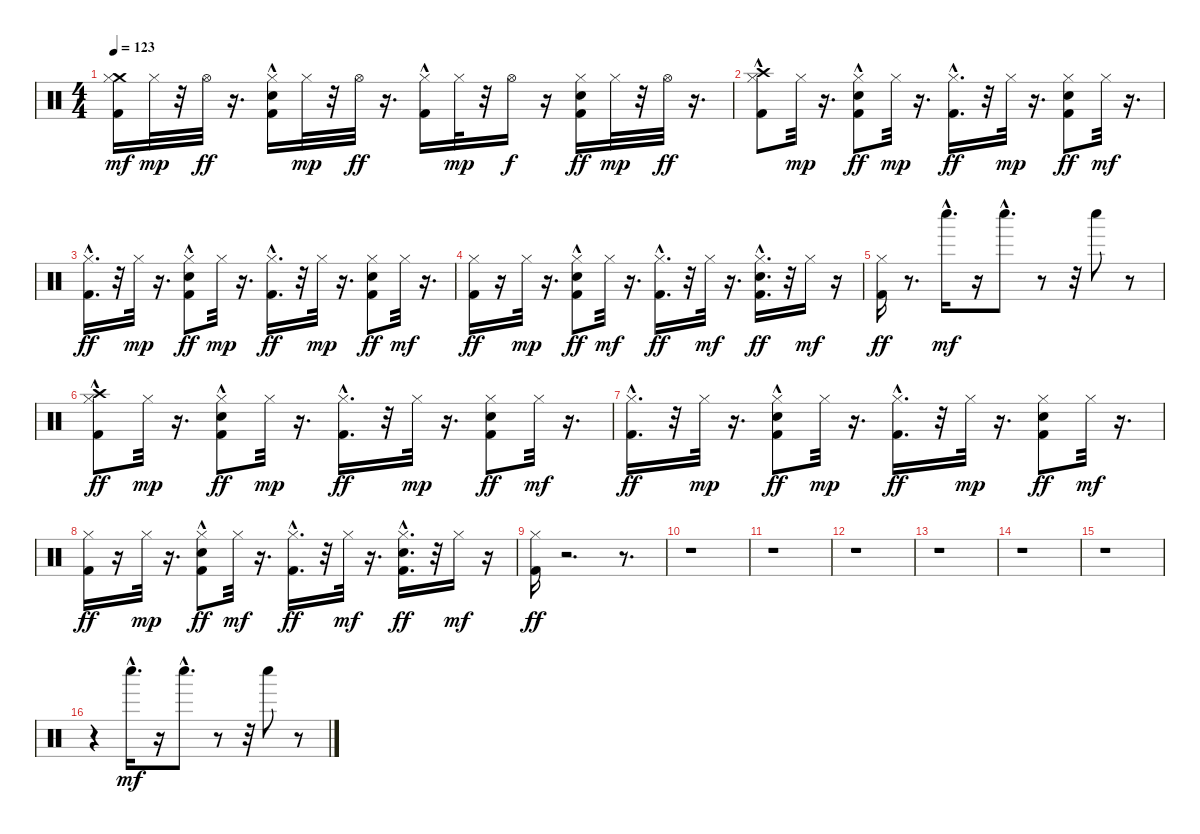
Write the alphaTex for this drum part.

\track "" {instrument percussion}
\staff {score}
\articulation defaults
\ts (4 4)
\tempo 123
\clef neutral
\ks c
("Kick (hit) 2" "Crash medium (hit)" "Hi-Hat (closed)").16{dy mf} "Hi-Hat (closed)".32{dy mp} r.32 "Hi-Hat (open)".32{dy ff} r.16{d} ("Kick (hit) 2"{hac} "Hi-Hat (closed)" "Snare (hit) 2"{hac}).16 "Hi-Hat (closed)".32{dy mp} r.32 "Hi-Hat (open)".32{dy ff} r.16{d} ("Kick (hit) 2"{hac} "Hi-Hat (closed)").16 "Hi-Hat (closed)".32{dy mp} r.32 "Hi-Hat (open)".16{dy f} r.16 ("Snare (hit) 2" "Kick (hit) 2" "Hi-Hat (closed)").16{dy ff} "Hi-Hat (closed)".32{dy mp} r.32 "Hi-Hat (open)".32{dy ff} r.16{d} |
("Kick (hit) 2"{hac} "Crash high (hit)" "Hi-Hat (closed)").8 "Hi-Hat (closed)".32{dy mp} r.16{d} ("Kick (hit) 2"{hac} "Snare (hit) 2" "Hi-Hat (closed)").8{dy ff} "Hi-Hat (closed)".32{dy mp} r.16{d} ("Kick (hit) 2"{hac} "Hi-Hat (closed)").16{d dy ff} r.32 "Hi-Hat (closed)".32{dy mp} r.16{d} ("Kick (hit) 2" "Snare (hit) 2" "Hi-Hat (closed)").8{dy ff} "Hi-Hat (closed)".32{dy mf} r.16{d} |
("Kick (hit) 2"{hac} "Hi-Hat (closed)").16{d dy ff} r.32 "Hi-Hat (closed)".32{dy mp} r.16{d} ("Kick (hit) 2"{hac} "Snare (hit) 2" "Hi-Hat (closed)").8{dy ff} "Hi-Hat (closed)".32{dy mp} r.16{d} ("Kick (hit) 2"{hac} "Hi-Hat (closed)").16{d dy ff} r.32 "Hi-Hat (closed)".32{dy mp} r.16{d} ("Kick (hit) 2" "Snare (hit) 2" "Hi-Hat (closed)").8{dy ff} "Hi-Hat (closed)".32{dy mf} r.16{d} |
("Kick (hit) 2" "Hi-Hat (closed)").16{dy ff} r.16 "Hi-Hat (closed)".32{dy mp} r.16{d} ("Kick (hit) 2"{hac} "Snare (hit) 2" "Hi-Hat (closed)").8{dy ff} "Hi-Hat (closed)".32{dy mf} r.16{d} ("Kick (hit) 2"{hac} "Hi-Hat (closed)").16{d dy ff} r.32 "Hi-Hat (closed)".32{dy mf} r.16{d} ("Kick (hit) 2" "Snare (hit) 2"{hac} "Hi-Hat (closed)").16{d dy ff} r.32 "Hi-Hat (closed)".16{dy mf} r.16 |
("Kick (hit) 2" "Hi-Hat (closed)").16{dy ff} r.8{d} "Whistle low (hit)"{hac}.16{d dy mf} r.16 "Whistle low (hit)"{hac}.8{d} r.8 r.32 "Whistle low (hit)".8 r.8 |
("Kick (hit) 2"{hac} "Crash high (hit)" "Hi-Hat (closed)").8{dy ff} "Hi-Hat (closed)".32{dy mp} r.16{d} ("Kick (hit) 2"{hac} "Snare (hit) 2" "Hi-Hat (closed)").8{dy ff} "Hi-Hat (closed)".32{dy mp} r.16{d} ("Kick (hit) 2"{hac} "Hi-Hat (closed)").16{d dy ff} r.32 "Hi-Hat (closed)".32{dy mp} r.16{d} ("Kick (hit) 2" "Snare (hit) 2" "Hi-Hat (closed)").8{dy ff} "Hi-Hat (closed)".32{dy mf} r.16{d} |
("Kick (hit) 2"{hac} "Hi-Hat (closed)").16{d dy ff} r.32 "Hi-Hat (closed)".32{dy mp} r.16{d} ("Kick (hit) 2"{hac} "Snare (hit) 2" "Hi-Hat (closed)").8{dy ff} "Hi-Hat (closed)".32{dy mp} r.16{d} ("Kick (hit) 2"{hac} "Hi-Hat (closed)").16{d dy ff} r.32 "Hi-Hat (closed)".32{dy mp} r.16{d} ("Kick (hit) 2" "Snare (hit) 2" "Hi-Hat (closed)").8{dy ff} "Hi-Hat (closed)".32{dy mf} r.16{d} |
("Kick (hit) 2" "Hi-Hat (closed)").16{dy ff} r.16 "Hi-Hat (closed)".32{dy mp} r.16{d} ("Kick (hit) 2"{hac} "Snare (hit) 2" "Hi-Hat (closed)").8{dy ff} "Hi-Hat (closed)".32{dy mf} r.16{d} ("Kick (hit) 2"{hac} "Hi-Hat (closed)").16{d dy ff} r.32 "Hi-Hat (closed)".32{dy mf} r.16{d} ("Kick (hit) 2" "Snare (hit) 2"{hac} "Hi-Hat (closed)").16{d dy ff} r.32 "Hi-Hat (closed)".16{dy mf} r.16 |
("Kick (hit) 2" "Hi-Hat (closed)").16{dy ff} r.2{d} r.8{d} |
r.1 |
r.1 |
r.1 |
r.1 |
r.1 |
r.1 |
r.4 "Whistle low (hit)"{hac}.16{d dy mf} r.16 "Whistle low (hit)"{hac}.8{d} r.8 r.32 "Whistle low (hit)".8 r.8
